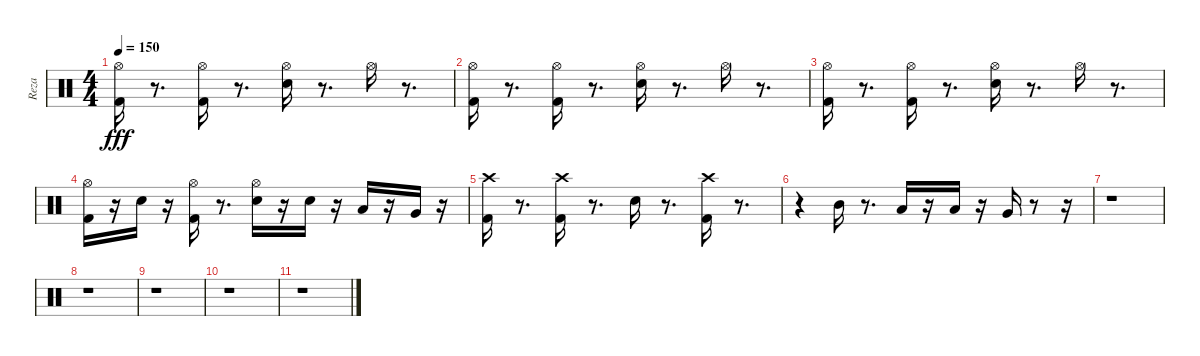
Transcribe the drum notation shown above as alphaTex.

\track ("Reza" "Reza") {instrument percussion}
\staff {score}
\articulation defaults
\ts (4 4)
\tempo 150
\clef neutral
\ks c
("Hi-Hat (open)" "Kick (hit) 2").16{dy fff} r.8{d} ("Hi-Hat (open)" "Kick (hit) 2").16 r.8{d} ("Hi-Hat (open)" "Snare (hit) 2").16 r.8{d} "Hi-Hat (open)".16 r.8{d} |
("Hi-Hat (open)" "Kick (hit) 2").16 r.8{d} ("Kick (hit) 2" "Hi-Hat (open)").16 r.8{d} ("Snare (hit) 2" "Hi-Hat (open)").16 r.8{d} "Hi-Hat (open)".16 r.8{d} |
("Hi-Hat (open)" "Kick (hit) 2").16 r.8{d} ("Hi-Hat (open)" "Kick (hit) 2").16 r.8{d} ("Snare (hit) 2" "Hi-Hat (open)").16 r.8{d} "Hi-Hat (open)".16 r.8{d} |
("Kick (hit) 2" "Hi-Hat (open)").16 r.16 "Snare (hit) 2".16 r.16 ("Kick (hit) 2" "Hi-Hat (open)").16 r.8{d} ("Snare (hit) 2" "Hi-Hat (open)").16 r.16 "Snare (hit) 2".16 r.16 "Low Tom (hit)".16 r.16 "Very Low Tom (hit)".16 r.16 |
("Crash high (hit)" "Kick (hit) 2").16 r.8{d} ("Kick (hit) 2" "Crash high (hit)").16 r.8{d} "Snare (hit) 2".16 r.8{d} ("Kick (hit) 2" "Crash high (hit)").16 r.8{d} |
r.4 "Mid Tom (hit)".16 r.8{d} "Low Tom (hit)".16 r.16 "Low Tom (hit)".16 r.16 "Very Low Tom (hit)".16 r.8 r.16 |
r.1 |
r.1 |
r.1 |
r.1 |
r.1
